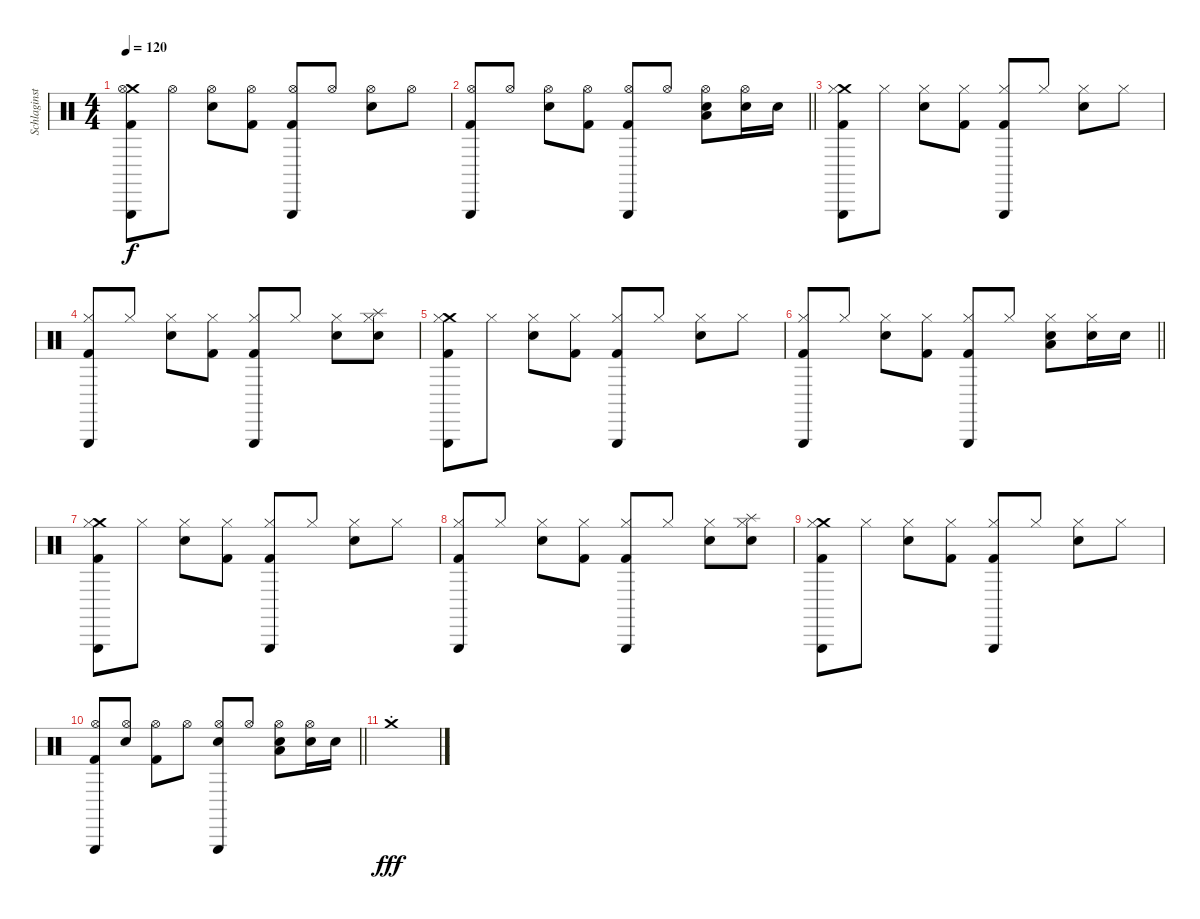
\track ("Schlaginstrumente - Auswahl" "Schlaginst") {instrument percussion}
\staff {score}
\articulation defaults
\ts (4 4)
\tempo 120
\clef neutral
\ks c
("Crash medium (hit)" "Triangle (hit)" "Hi-Hat (open)" "Kick (hit) 2").8{dy f} "Hi-Hat (open)".8 ("Hi-Hat (open)" "Snare (hit) 2").8 ("Hi-Hat (open)" "Kick (hit) 2").8 ("Triangle (hit)" "Hi-Hat (open)" "Kick (hit) 2").8 "Hi-Hat (open)".8 ("Hi-Hat (open)" "Snare (hit) 2").8 "Hi-Hat (open)".8 |
\barLineRight lightlight
("Triangle (hit)" "Hi-Hat (open)" "Kick (hit) 2").8 "Hi-Hat (open)".8 ("Hi-Hat (open)" "Snare (hit) 2").8 ("Hi-Hat (open)" "Kick (hit) 2").8 ("Triangle (hit)" "Hi-Hat (open)" "Kick (hit) 2").8 "Hi-Hat (open)".8 ("Low Tom (hit)" "Hi-Hat (open)" "Snare (hit) 2").8 ("Hi-Hat (open)" "Snare (hit) 2").16 "Snare (hit) 2".16 |
("Crash medium (hit)" "Triangle (hit)" "Hi-Hat (closed)" "Kick (hit) 2").8 "Hi-Hat (closed)".8 ("Hi-Hat (closed)" "Snare (hit) 2").8 ("Hi-Hat (closed)" "Kick (hit) 2").8 ("Triangle (hit)" "Hi-Hat (closed)" "Kick (hit) 2").8 "Hi-Hat (closed)".8 ("Hi-Hat (closed)" "Snare (hit) 2").8 "Hi-Hat (closed)".8 |
("Triangle (hit)" "Hi-Hat (closed)" "Kick (hit) 2").8 "Hi-Hat (closed)".8 ("Hi-Hat (closed)" "Snare (hit) 2").8 ("Hi-Hat (closed)" "Kick (hit) 2").8 ("Triangle (hit)" "Hi-Hat (closed)" "Kick (hit) 2").8 "Hi-Hat (closed)".8 ("Hi-Hat (closed)" "Snare (hit) 2").8 ("Splash (hit)" "Hi-Hat (closed)" "Snare (hit) 2").8 |
("Crash medium (hit)" "Triangle (hit)" "Hi-Hat (closed)" "Kick (hit) 2").8 "Hi-Hat (closed)".8 ("Hi-Hat (closed)" "Snare (hit) 2").8 ("Hi-Hat (closed)" "Kick (hit) 2").8 ("Triangle (hit)" "Hi-Hat (closed)" "Kick (hit) 2").8 "Hi-Hat (closed)".8 ("Hi-Hat (closed)" "Snare (hit) 2").8 "Hi-Hat (closed)".8 |
\barLineRight lightlight
("Triangle (hit)" "Hi-Hat (closed)" "Kick (hit) 2").8 "Hi-Hat (closed)".8 ("Hi-Hat (closed)" "Snare (hit) 2").8 ("Hi-Hat (closed)" "Kick (hit) 2").8 ("Triangle (hit)" "Hi-Hat (closed)" "Kick (hit) 2").8 "Hi-Hat (closed)".8 ("Low Tom (hit)" "Hi-Hat (closed)" "Snare (hit) 2").8 ("Hi-Hat (closed)" "Snare (hit) 2").16 "Snare (hit) 2".16 |
("Crash medium (hit)" "Triangle (hit)" "Hi-Hat (closed)" "Kick (hit) 2").8 "Hi-Hat (closed)".8 ("Hi-Hat (closed)" "Snare (hit) 2").8 ("Hi-Hat (closed)" "Kick (hit) 2").8 ("Triangle (hit)" "Hi-Hat (closed)" "Kick (hit) 2").8 "Hi-Hat (closed)".8 ("Hi-Hat (closed)" "Snare (hit) 2").8 "Hi-Hat (closed)".8 |
("Triangle (hit)" "Hi-Hat (closed)" "Kick (hit) 2").8 "Hi-Hat (closed)".8 ("Hi-Hat (closed)" "Snare (hit) 2").8 ("Hi-Hat (closed)" "Kick (hit) 2").8 ("Triangle (hit)" "Hi-Hat (closed)" "Kick (hit) 2").8 "Hi-Hat (closed)".8 ("Hi-Hat (closed)" "Snare (hit) 2").8 ("Splash (hit)" "Hi-Hat (closed)" "Snare (hit) 2").8 |
("Crash medium (hit)" "Triangle (hit)" "Hi-Hat (closed)" "Kick (hit) 2").8 "Hi-Hat (closed)".8 ("Hi-Hat (closed)" "Snare (hit) 2").8 ("Hi-Hat (closed)" "Kick (hit) 2").8 ("Triangle (hit)" "Hi-Hat (closed)" "Kick (hit) 2").8 "Hi-Hat (closed)".8 ("Hi-Hat (closed)" "Snare (hit) 2").8 "Hi-Hat (closed)".8 |
\barLineRight lightlight
("Triangle (hit)" "Hi-Hat (open)" "Kick (hit) 2").8 ("Hi-Hat (open)" "Snare (hit) 2").8 ("Hi-Hat (open)" "Kick (hit) 2").8 "Hi-Hat (open)".8 ("Triangle (hit)" "Hi-Hat (open)" "Snare (hit) 2").8 "Hi-Hat (open)".8 ("Low Tom (hit)" "Hi-Hat (open)" "Snare (hit) 2").8 ("Hi-Hat (open)" "Snare (hit) 2").16 "Snare (hit) 2".16 |
"Crash medium (hit)"{st}.1{dy fff}
